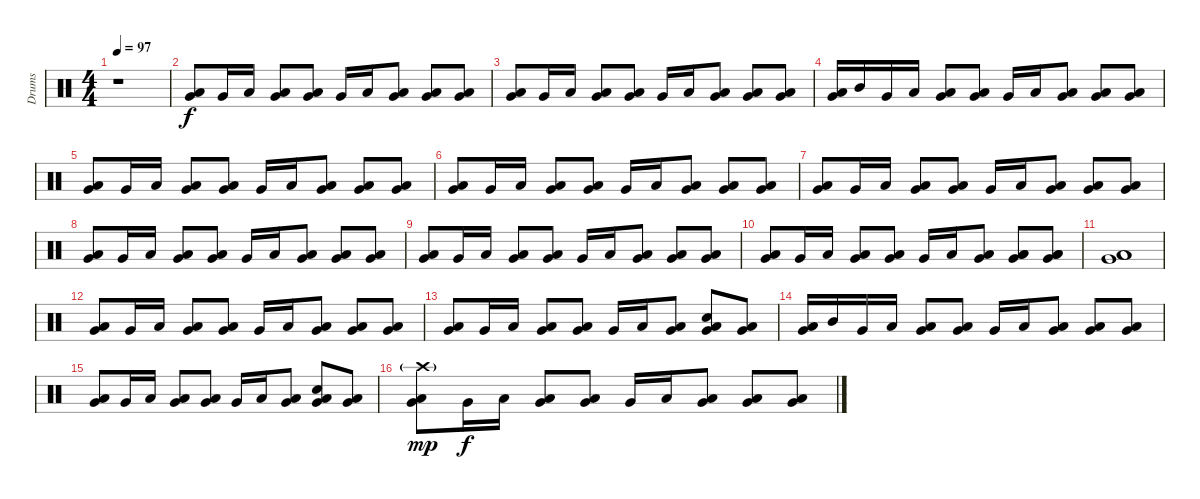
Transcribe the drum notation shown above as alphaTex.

\track ("Drums" "Drums") {instrument percussion}
\staff {score}
\articulation defaults
\ts (4 4)
\tempo 97
\clef neutral
\ks c
r.1{dy f} |
("Low Tom (hit)" "Very Low Tom (hit)").8{volume 13} "Very Low Tom (hit)".16 "Low Tom (hit)".16 ("Low Tom (hit)" "Very Low Tom (hit)").8 ("Low Tom (hit)" "Very Low Tom (hit)").8 "Very Low Tom (hit)".16 "Low Tom (hit)".16 ("Low Tom (hit)" "Very Low Tom (hit)").8 ("Low Tom (hit)" "Very Low Tom (hit)").8 ("Low Tom (hit)" "Very Low Tom (hit)").8 |
("Low Tom (hit)" "Very Low Tom (hit)").8 "Very Low Tom (hit)".16 "Low Tom (hit)".16 ("Low Tom (hit)" "Very Low Tom (hit)").8 ("Low Tom (hit)" "Very Low Tom (hit)").8 "Very Low Tom (hit)".16 "Low Tom (hit)".16 ("Low Tom (hit)" "Very Low Tom (hit)").8 ("Low Tom (hit)" "Very Low Tom (hit)").8 ("Low Tom (hit)" "Very Low Tom (hit)").8 |
("Low Tom (hit)" "Very Low Tom (hit)").16{volume 13} "Mid Tom (hit)".16 "Very Low Tom (hit)".16 "Low Tom (hit)".16 ("Low Tom (hit)" "Very Low Tom (hit)").8 ("Low Tom (hit)" "Very Low Tom (hit)").8 "Very Low Tom (hit)".16 "Low Tom (hit)".16 ("Low Tom (hit)" "Very Low Tom (hit)").8 ("Low Tom (hit)" "Very Low Tom (hit)").8 ("Low Tom (hit)" "Very Low Tom (hit)").8 |
("Low Tom (hit)" "Very Low Tom (hit)").8 "Very Low Tom (hit)".16 "Low Tom (hit)".16 ("Low Tom (hit)" "Very Low Tom (hit)").8 ("Low Tom (hit)" "Very Low Tom (hit)").8 "Very Low Tom (hit)".16 "Low Tom (hit)".16 ("Low Tom (hit)" "Very Low Tom (hit)").8 ("Low Tom (hit)" "Very Low Tom (hit)").8 ("Low Tom (hit)" "Very Low Tom (hit)").8 |
("Low Tom (hit)" "Very Low Tom (hit)").8{volume 13} "Very Low Tom (hit)".16 "Low Tom (hit)".16 ("Low Tom (hit)" "Very Low Tom (hit)").8 ("Low Tom (hit)" "Very Low Tom (hit)").8 "Very Low Tom (hit)".16 "Low Tom (hit)".16 ("Low Tom (hit)" "Very Low Tom (hit)").8 ("Low Tom (hit)" "Very Low Tom (hit)").8 ("Low Tom (hit)" "Very Low Tom (hit)").8 |
("Low Tom (hit)" "Very Low Tom (hit)").8 "Very Low Tom (hit)".16 "Low Tom (hit)".16 ("Low Tom (hit)" "Very Low Tom (hit)").8 ("Low Tom (hit)" "Very Low Tom (hit)").8 "Very Low Tom (hit)".16 "Low Tom (hit)".16 ("Low Tom (hit)" "Very Low Tom (hit)").8 ("Low Tom (hit)" "Very Low Tom (hit)").8 ("Low Tom (hit)" "Very Low Tom (hit)").8 |
("Low Tom (hit)" "Very Low Tom (hit)").8{volume 13} "Very Low Tom (hit)".16 "Low Tom (hit)".16 ("Low Tom (hit)" "Very Low Tom (hit)").8 ("Low Tom (hit)" "Very Low Tom (hit)").8 "Very Low Tom (hit)".16 "Low Tom (hit)".16 ("Low Tom (hit)" "Very Low Tom (hit)").8 ("Low Tom (hit)" "Very Low Tom (hit)").8 ("Low Tom (hit)" "Very Low Tom (hit)").8 |
("Low Tom (hit)" "Very Low Tom (hit)").8 "Very Low Tom (hit)".16 "Low Tom (hit)".16 ("Low Tom (hit)" "Very Low Tom (hit)").8 ("Low Tom (hit)" "Very Low Tom (hit)").8 "Very Low Tom (hit)".16 "Low Tom (hit)".16 ("Low Tom (hit)" "Very Low Tom (hit)").8 ("Low Tom (hit)" "Very Low Tom (hit)").8 ("Low Tom (hit)" "Very Low Tom (hit)").8 |
("Low Tom (hit)" "Very Low Tom (hit)").8{volume 13} "Very Low Tom (hit)".16 "Low Tom (hit)".16 ("Low Tom (hit)" "Very Low Tom (hit)").8 ("Low Tom (hit)" "Very Low Tom (hit)").8 "Very Low Tom (hit)".16 "Low Tom (hit)".16 ("Low Tom (hit)" "Very Low Tom (hit)").8 ("Low Tom (hit)" "Very Low Tom (hit)" "Low Tom (hit)").8 ("Low Tom (hit)" "Very Low Tom (hit)" "Low Tom (hit)").8 |
("Low Tom (hit)" "Very Low Tom (hit)" "Low Tom (hit)").1 |
("Low Tom (hit)" "Very Low Tom (hit)").8{volume 13} "Very Low Tom (hit)".16 "Low Tom (hit)".16 ("Low Tom (hit)" "Very Low Tom (hit)").8 ("Low Tom (hit)" "Very Low Tom (hit)").8 "Very Low Tom (hit)".16 "Low Tom (hit)".16 ("Low Tom (hit)" "Very Low Tom (hit)").8 ("Low Tom (hit)" "Very Low Tom (hit)").8 ("Low Tom (hit)" "Very Low Tom (hit)").8 |
("Low Tom (hit)" "Very Low Tom (hit)").8 "Very Low Tom (hit)".16 "Low Tom (hit)".16 ("Low Tom (hit)" "Very Low Tom (hit)").8 ("Low Tom (hit)" "Very Low Tom (hit)").8 "Very Low Tom (hit)".16 "Low Tom (hit)".16 ("Low Tom (hit)" "Very Low Tom (hit)").8 ("Low Tom (hit)" "Very Low Tom (hit)" "Electric Snare (hit)").8 ("Low Tom (hit)" "Very Low Tom (hit)").8 |
("Low Tom (hit)" "Very Low Tom (hit)").16{volume 13} "Mid Tom (hit)".16 "Very Low Tom (hit)".16 "Low Tom (hit)".16 ("Low Tom (hit)" "Very Low Tom (hit)").8 ("Low Tom (hit)" "Very Low Tom (hit)").8 "Very Low Tom (hit)".16 "Low Tom (hit)".16 ("Low Tom (hit)" "Very Low Tom (hit)").8 ("Low Tom (hit)" "Very Low Tom (hit)").8 ("Low Tom (hit)" "Very Low Tom (hit)").8 |
("Low Tom (hit)" "Very Low Tom (hit)").8 "Very Low Tom (hit)".16 "Low Tom (hit)".16 ("Low Tom (hit)" "Very Low Tom (hit)").8 ("Low Tom (hit)" "Very Low Tom (hit)").8 "Very Low Tom (hit)".16 "Low Tom (hit)".16 ("Low Tom (hit)" "Very Low Tom (hit)").8 ("Low Tom (hit)" "Very Low Tom (hit)" "Electric Snare (hit)").8 ("Low Tom (hit)" "Very Low Tom (hit)").8 |
("Low Tom (hit)" "Very Low Tom (hit)" "Crash high (hit)"{g}).8{dy mp volume 13} "Very Low Tom (hit)".16{dy f} "Low Tom (hit)".16 ("Low Tom (hit)" "Very Low Tom (hit)").8 ("Low Tom (hit)" "Very Low Tom (hit)").8 "Very Low Tom (hit)".16 "Low Tom (hit)".16 ("Low Tom (hit)" "Very Low Tom (hit)").8 ("Low Tom (hit)" "Very Low Tom (hit)").8 ("Low Tom (hit)" "Very Low Tom (hit)").8
